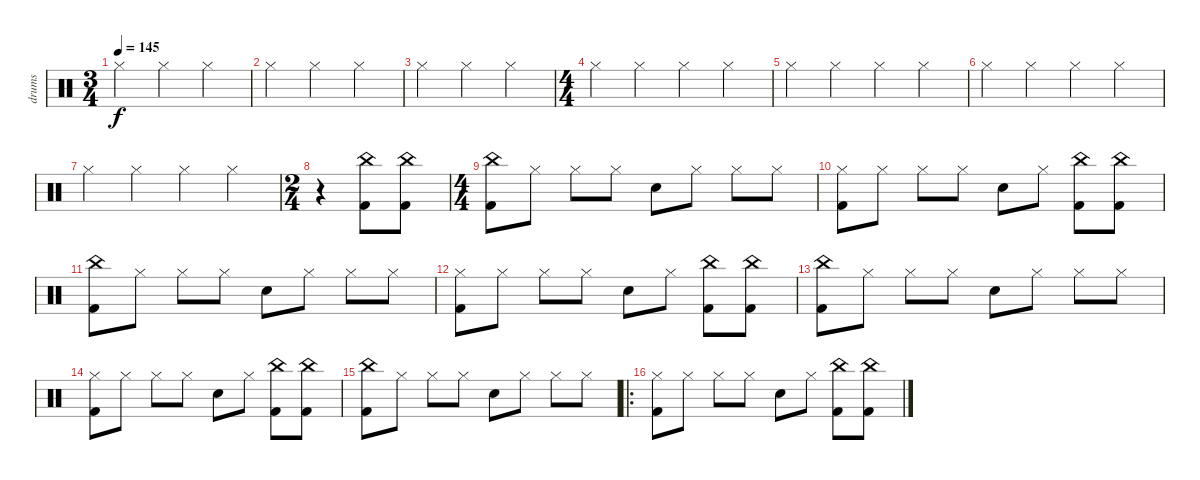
\track ("drums" "drums") {instrument percussion}
\staff {score}
\articulation defaults
\ts (3 4)
\tempo 145
\clef neutral
\ks c "Hi-Hat (closed)".4{dy f} "Hi-Hat (closed)".4 "Hi-Hat (closed)".4
|
"Hi-Hat (closed)".4 "Hi-Hat (closed)".4 "Hi-Hat (closed)".4 |
"Hi-Hat (closed)".4 "Hi-Hat (closed)".4 "Hi-Hat (closed)".4 |
\ts (4 4)
"Hi-Hat (closed)".4 "Hi-Hat (closed)".4 "Hi-Hat (closed)".4 "Hi-Hat (closed)".4 |
"Hi-Hat (closed)".4 "Hi-Hat (closed)".4 "Hi-Hat (closed)".4 "Hi-Hat (closed)".4 |
"Hi-Hat (closed)".4 "Hi-Hat (closed)".4 "Hi-Hat (closed)".4 "Hi-Hat (closed)".4 |
"Hi-Hat (closed)".4 "Hi-Hat (closed)".4 "Hi-Hat (closed)".4 "Hi-Hat (closed)".4 |
\ts (2 4)
r.4 ("Kick (hit) 2" "China (hit)").8 ("Kick (hit) 2" "China (hit)").8 |
\ts (4 4)
("Kick (hit) 2" "China (hit)").8 "Hi-Hat (closed)".8 "Hi-Hat (closed)".8 "Hi-Hat (closed)".8 "Snare (hit) 2".8 "Hi-Hat (closed)".8 "Hi-Hat (closed)".8 "Hi-Hat (closed)".8 |
("Kick (hit) 2" "Hi-Hat (closed)").8 "Hi-Hat (closed)".8 "Hi-Hat (closed)".8 "Hi-Hat (closed)".8 "Snare (hit) 2".8 "Hi-Hat (closed)".8 ("Kick (hit) 2" "China (hit)").8 ("Kick (hit) 2" "China (hit)").8 |
("Kick (hit) 2" "China (hit)").8 "Hi-Hat (closed)".8 "Hi-Hat (closed)".8 "Hi-Hat (closed)".8 "Snare (hit) 2".8 "Hi-Hat (closed)".8 "Hi-Hat (closed)".8 "Hi-Hat (closed)".8 |
("Kick (hit) 2" "Hi-Hat (closed)").8 "Hi-Hat (closed)".8 "Hi-Hat (closed)".8 "Hi-Hat (closed)".8 "Snare (hit) 2".8 "Hi-Hat (closed)".8 ("Kick (hit) 2" "China (hit)").8 ("Kick (hit) 2" "China (hit)").8 |
("Kick (hit) 2" "China (hit)").8 "Hi-Hat (closed)".8 "Hi-Hat (closed)".8 "Hi-Hat (closed)".8 "Snare (hit) 2".8 "Hi-Hat (closed)".8 "Hi-Hat (closed)".8 "Hi-Hat (closed)".8 |
("Kick (hit) 2" "Hi-Hat (closed)").8 "Hi-Hat (closed)".8 "Hi-Hat (closed)".8 "Hi-Hat (closed)".8 "Snare (hit) 2".8 "Hi-Hat (closed)".8 ("Kick (hit) 2" "China (hit)").8 ("Kick (hit) 2" "China (hit)").8 |
("Kick (hit) 2" "China (hit)").8 "Hi-Hat (closed)".8 "Hi-Hat (closed)".8 "Hi-Hat (closed)".8 "Snare (hit) 2".8 "Hi-Hat (closed)".8 "Hi-Hat (closed)".8 "Hi-Hat (closed)".8 |
\ro
("Kick (hit) 2" "Hi-Hat (closed)").8 "Hi-Hat (closed)".8 "Hi-Hat (closed)".8 "Hi-Hat (closed)".8 "Snare (hit) 2".8 "Hi-Hat (closed)".8 ("Kick (hit) 2" "China (hit)").8 ("Kick (hit) 2" "China (hit)").8
